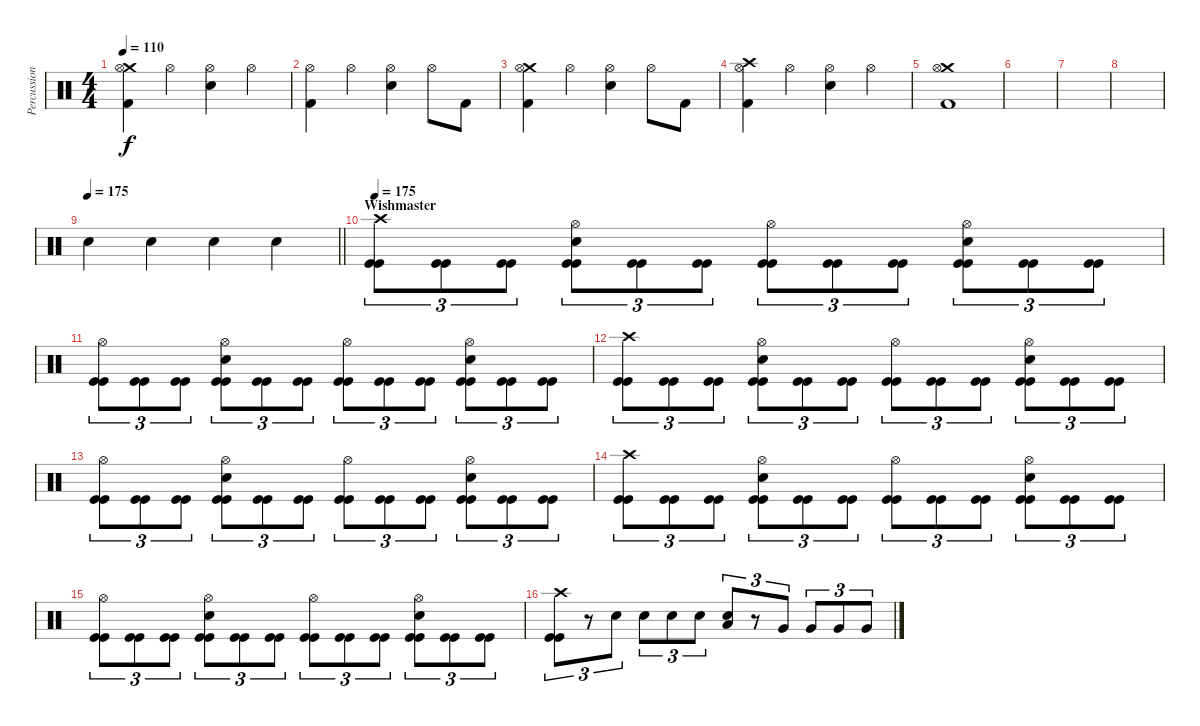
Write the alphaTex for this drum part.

\track ("Percussion" "Percussion") {instrument percussion}
\staff {score}
\articulation defaults
\ts (4 4)
\tempo 110
\clef neutral
\ks c
("Crash medium (hit)" "Hi-Hat (open)" "Kick (hit) 2").4{dy f} "Hi-Hat (open)".4 ("Hi-Hat (open)" "Electric Snare (hit)").4 "Hi-Hat (open)".4 |
("Hi-Hat (open)" "Kick (hit) 2").4 "Hi-Hat (open)".4 ("Hi-Hat (open)" "Electric Snare (hit)").4 "Hi-Hat (open)".8 "Kick (hit) 2".8 |
("Crash medium (hit)" "Hi-Hat (open)" "Kick (hit) 2").4 "Hi-Hat (open)".4 ("Hi-Hat (open)" "Electric Snare (hit)").4 "Hi-Hat (open)".8 "Kick (hit) 2".8 |
("Crash high (hit)" "Hi-Hat (open)" "Kick (hit) 2").4 "Hi-Hat (open)".4 ("Hi-Hat (open)" "Electric Snare (hit)").4 "Hi-Hat (open)".4 |
("Crash medium (hit)" "Hi-Hat (open)" "Kick (hit) 2").1 |
|
|
|
\tempo 175
\barLineRight lightlight "Electric Snare (hit)".4 "Electric Snare (hit)".4 "Electric Snare (hit)".4 "Electric Snare (hit)".4
|
\section ("" "Wishmaster")
\tempo 175
("Kick (hit)" "Kick (hit)" "Crash high (hit)").8{tu (3 2)} ("Kick (hit)" "Kick (hit)").8{tu (3 2)} ("Kick (hit)" "Kick (hit)").8{tu (3 2)} ("Kick (hit)" "Kick (hit)" "Snare (hit) 2" "Hi-Hat (open)").8{tu (3 2)} ("Kick (hit)" "Kick (hit)").8{tu (3 2)} ("Kick (hit)" "Kick (hit)").8{tu (3 2)} ("Kick (hit)" "Kick (hit)" "Hi-Hat (open)").8{tu (3 2)} ("Kick (hit)" "Kick (hit)").8{tu (3 2)} ("Kick (hit)" "Kick (hit)").8{tu (3 2)} ("Kick (hit)" "Kick (hit)" "Snare (hit) 2" "Hi-Hat (open)").8{tu (3 2)} ("Kick (hit)" "Kick (hit)").8{tu (3 2)} ("Kick (hit)" "Kick (hit)").8{tu (3 2)} |
("Kick (hit)" "Kick (hit)" "Hi-Hat (open)").8{tu (3 2)} ("Kick (hit)" "Kick (hit)").8{tu (3 2)} ("Kick (hit)" "Kick (hit)").8{tu (3 2)} ("Kick (hit)" "Kick (hit)" "Snare (hit) 2" "Hi-Hat (open)").8{tu (3 2)} ("Kick (hit)" "Kick (hit)").8{tu (3 2)} ("Kick (hit)" "Kick (hit)").8{tu (3 2)} ("Kick (hit)" "Kick (hit)" "Hi-Hat (open)").8{tu (3 2)} ("Kick (hit)" "Kick (hit)").8{tu (3 2)} ("Kick (hit)" "Kick (hit)").8{tu (3 2)} ("Kick (hit)" "Kick (hit)" "Snare (hit) 2" "Hi-Hat (open)").8{tu (3 2)} ("Kick (hit)" "Kick (hit)").8{tu (3 2)} ("Kick (hit)" "Kick (hit)").8{tu (3 2)} |
("Kick (hit)" "Kick (hit)" "Crash high (hit)").8{tu (3 2)} ("Kick (hit)" "Kick (hit)").8{tu (3 2)} ("Kick (hit)" "Kick (hit)").8{tu (3 2)} ("Kick (hit)" "Kick (hit)" "Snare (hit) 2" "Hi-Hat (open)").8{tu (3 2)} ("Kick (hit)" "Kick (hit)").8{tu (3 2)} ("Kick (hit)" "Kick (hit)").8{tu (3 2)} ("Kick (hit)" "Kick (hit)" "Hi-Hat (open)").8{tu (3 2)} ("Kick (hit)" "Kick (hit)").8{tu (3 2)} ("Kick (hit)" "Kick (hit)").8{tu (3 2)} ("Kick (hit)" "Kick (hit)" "Snare (hit) 2" "Hi-Hat (open)").8{tu (3 2)} ("Kick (hit)" "Kick (hit)").8{tu (3 2)} ("Kick (hit)" "Kick (hit)").8{tu (3 2)} |
("Kick (hit)" "Kick (hit)" "Hi-Hat (open)").8{tu (3 2)} ("Kick (hit)" "Kick (hit)").8{tu (3 2)} ("Kick (hit)" "Kick (hit)").8{tu (3 2)} ("Kick (hit)" "Kick (hit)" "Snare (hit) 2" "Hi-Hat (open)").8{tu (3 2)} ("Kick (hit)" "Kick (hit)").8{tu (3 2)} ("Kick (hit)" "Kick (hit)").8{tu (3 2)} ("Kick (hit)" "Kick (hit)" "Hi-Hat (open)").8{tu (3 2)} ("Kick (hit)" "Kick (hit)").8{tu (3 2)} ("Kick (hit)" "Kick (hit)").8{tu (3 2)} ("Kick (hit)" "Kick (hit)" "Snare (hit) 2" "Hi-Hat (open)").8{tu (3 2)} ("Kick (hit)" "Kick (hit)").8{tu (3 2)} ("Kick (hit)" "Kick (hit)").8{tu (3 2)} |
("Kick (hit)" "Kick (hit)" "Crash high (hit)").8{tu (3 2)} ("Kick (hit)" "Kick (hit)").8{tu (3 2)} ("Kick (hit)" "Kick (hit)").8{tu (3 2)} ("Kick (hit)" "Kick (hit)" "Snare (hit) 2" "Hi-Hat (open)").8{tu (3 2)} ("Kick (hit)" "Kick (hit)").8{tu (3 2)} ("Kick (hit)" "Kick (hit)").8{tu (3 2)} ("Kick (hit)" "Kick (hit)" "Hi-Hat (open)").8{tu (3 2)} ("Kick (hit)" "Kick (hit)").8{tu (3 2)} ("Kick (hit)" "Kick (hit)").8{tu (3 2)} ("Kick (hit)" "Kick (hit)" "Snare (hit) 2" "Hi-Hat (open)").8{tu (3 2)} ("Kick (hit)" "Kick (hit)").8{tu (3 2)} ("Kick (hit)" "Kick (hit)").8{tu (3 2)} |
("Kick (hit)" "Kick (hit)" "Hi-Hat (open)").8{tu (3 2)} ("Kick (hit)" "Kick (hit)").8{tu (3 2)} ("Kick (hit)" "Kick (hit)").8{tu (3 2)} ("Kick (hit)" "Kick (hit)" "Snare (hit) 2" "Hi-Hat (open)").8{tu (3 2)} ("Kick (hit)" "Kick (hit)").8{tu (3 2)} ("Kick (hit)" "Kick (hit)").8{tu (3 2)} ("Kick (hit)" "Kick (hit)" "Hi-Hat (open)").8{tu (3 2)} ("Kick (hit)" "Kick (hit)").8{tu (3 2)} ("Kick (hit)" "Kick (hit)").8{tu (3 2)} ("Kick (hit)" "Kick (hit)" "Snare (hit) 2" "Hi-Hat (open)").8{tu (3 2)} ("Kick (hit)" "Kick (hit)").8{tu (3 2)} ("Kick (hit)" "Kick (hit)").8{tu (3 2)} |
("Kick (hit)" "Kick (hit)" "Crash high (hit)").8{tu (3 2)} r.8{tu (3 2)} "Snare (hit) 2".8{tu (3 2)} "Snare (hit) 2".8{tu (3 2)} "Snare (hit) 2".8{tu (3 2)} "Snare (hit) 2".8{tu (3 2)} ("Snare (hit) 2" "Low Tom (hit)").8{tu (3 2)} r.8{tu (3 2)} "Very Low Tom (hit)".8{tu (3 2)} "Very Low Tom (hit)".8{tu (3 2)} "Very Low Tom (hit)".8{tu (3 2)} "Very Low Tom (hit)".8{tu (3 2)}
